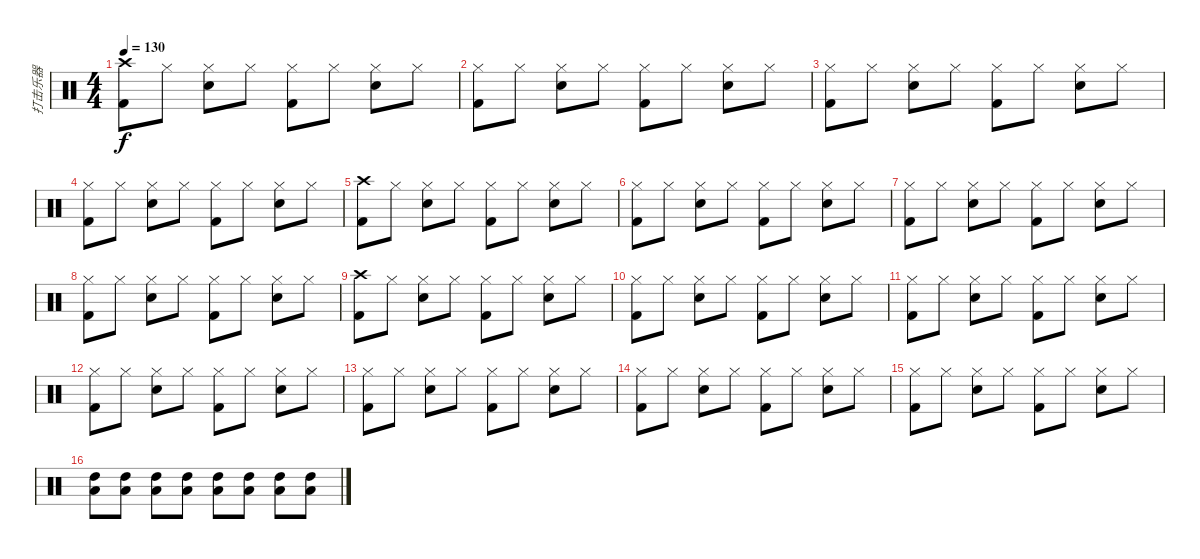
\track ("打击乐器" "打击乐器") {instrument percussion}
\staff {score}
\articulation defaults
\ts (4 4)
\tempo 130
\clef neutral
\ks c
("Kick (hit) 2" "Crash high (hit)").8{dy f} "Hi-Hat (closed)".8 ("Snare (hit) 2" "Hi-Hat (closed)").8 "Hi-Hat (closed)".8 ("Kick (hit) 2" "Hi-Hat (closed)").8 "Hi-Hat (closed)".8 ("Snare (hit) 2" "Hi-Hat (closed)").8 "Hi-Hat (closed)".8 |
("Kick (hit) 2" "Hi-Hat (closed)").8 "Hi-Hat (closed)".8 ("Snare (hit) 2" "Hi-Hat (closed)").8 "Hi-Hat (closed)".8 ("Kick (hit) 2" "Hi-Hat (closed)").8 "Hi-Hat (closed)".8 ("Snare (hit) 2" "Hi-Hat (closed)").8 "Hi-Hat (closed)".8 |
("Kick (hit) 2" "Hi-Hat (closed)").8 "Hi-Hat (closed)".8 ("Snare (hit) 2" "Hi-Hat (closed)").8 "Hi-Hat (closed)".8 ("Kick (hit) 2" "Hi-Hat (closed)").8 "Hi-Hat (closed)".8 ("Snare (hit) 2" "Hi-Hat (closed)").8 "Hi-Hat (closed)".8 |
("Kick (hit) 2" "Hi-Hat (closed)").8 "Hi-Hat (closed)".8 ("Snare (hit) 2" "Hi-Hat (closed)").8 "Hi-Hat (closed)".8 ("Kick (hit) 2" "Hi-Hat (closed)").8 "Hi-Hat (closed)".8 ("Snare (hit) 2" "Hi-Hat (closed)").8 "Hi-Hat (closed)".8 |
("Kick (hit) 2" "Crash high (hit)").8 "Hi-Hat (closed)".8 ("Snare (hit) 2" "Hi-Hat (closed)").8 "Hi-Hat (closed)".8 ("Kick (hit) 2" "Hi-Hat (closed)").8 "Hi-Hat (closed)".8 ("Snare (hit) 2" "Hi-Hat (closed)").8 "Hi-Hat (closed)".8 |
("Kick (hit) 2" "Hi-Hat (closed)").8 "Hi-Hat (closed)".8 ("Snare (hit) 2" "Hi-Hat (closed)").8 "Hi-Hat (closed)".8 ("Kick (hit) 2" "Hi-Hat (closed)").8 "Hi-Hat (closed)".8 ("Snare (hit) 2" "Hi-Hat (closed)").8 "Hi-Hat (closed)".8 |
("Kick (hit) 2" "Hi-Hat (closed)").8 "Hi-Hat (closed)".8 ("Snare (hit) 2" "Hi-Hat (closed)").8 "Hi-Hat (closed)".8 ("Kick (hit) 2" "Hi-Hat (closed)").8 "Hi-Hat (closed)".8 ("Snare (hit) 2" "Hi-Hat (closed)").8 "Hi-Hat (closed)".8 |
("Kick (hit) 2" "Hi-Hat (closed)").8 "Hi-Hat (closed)".8 ("Snare (hit) 2" "Hi-Hat (closed)").8 "Hi-Hat (closed)".8 ("Kick (hit) 2" "Hi-Hat (closed)").8 "Hi-Hat (closed)".8 ("Snare (hit) 2" "Hi-Hat (closed)").8 "Hi-Hat (closed)".8 |
("Kick (hit) 2" "Crash high (hit)").8 "Hi-Hat (closed)".8 ("Snare (hit) 2" "Hi-Hat (closed)").8 "Hi-Hat (closed)".8 ("Kick (hit) 2" "Hi-Hat (closed)").8 "Hi-Hat (closed)".8 ("Snare (hit) 2" "Hi-Hat (closed)").8 "Hi-Hat (closed)".8 |
("Kick (hit) 2" "Hi-Hat (closed)").8 "Hi-Hat (closed)".8 ("Snare (hit) 2" "Hi-Hat (closed)").8 "Hi-Hat (closed)".8 ("Kick (hit) 2" "Hi-Hat (closed)").8 "Hi-Hat (closed)".8 ("Snare (hit) 2" "Hi-Hat (closed)").8 "Hi-Hat (closed)".8 |
("Kick (hit) 2" "Hi-Hat (closed)").8 "Hi-Hat (closed)".8 ("Snare (hit) 2" "Hi-Hat (closed)").8 "Hi-Hat (closed)".8 ("Kick (hit) 2" "Hi-Hat (closed)").8 "Hi-Hat (closed)".8 ("Snare (hit) 2" "Hi-Hat (closed)").8 "Hi-Hat (closed)".8 |
("Kick (hit) 2" "Hi-Hat (closed)").8 "Hi-Hat (closed)".8 ("Snare (hit) 2" "Hi-Hat (closed)").8 "Hi-Hat (closed)".8 ("Kick (hit) 2" "Hi-Hat (closed)").8 "Hi-Hat (closed)".8 ("Snare (hit) 2" "Hi-Hat (closed)").8 "Hi-Hat (closed)".8 |
("Kick (hit) 2" "Hi-Hat (closed)").8 "Hi-Hat (closed)".8 ("Snare (hit) 2" "Hi-Hat (closed)").8 "Hi-Hat (closed)".8 ("Kick (hit) 2" "Hi-Hat (closed)").8 "Hi-Hat (closed)".8 ("Snare (hit) 2" "Hi-Hat (closed)").8 "Hi-Hat (closed)".8 |
("Kick (hit) 2" "Hi-Hat (closed)").8 "Hi-Hat (closed)".8 ("Snare (hit) 2" "Hi-Hat (closed)").8 "Hi-Hat (closed)".8 ("Kick (hit) 2" "Hi-Hat (closed)").8 "Hi-Hat (closed)".8 ("Snare (hit) 2" "Hi-Hat (closed)").8 "Hi-Hat (closed)".8 |
("Kick (hit) 2" "Hi-Hat (closed)").8 "Hi-Hat (closed)".8 ("Snare (hit) 2" "Hi-Hat (closed)").8 "Hi-Hat (closed)".8 ("Kick (hit) 2" "Hi-Hat (closed)").8 "Hi-Hat (closed)".8 ("Snare (hit) 2" "Hi-Hat (closed)").8 "Hi-Hat (closed)".8 |
("High Tom (hit)" "Low Tom (hit)").8 ("High Tom (hit)" "Low Tom (hit)").8 ("High Tom (hit)" "Low Tom (hit)").8 ("High Tom (hit)" "Low Tom (hit)").8 ("High Tom (hit)" "Low Tom (hit)").8 ("High Tom (hit)" "Low Tom (hit)").8 ("High Tom (hit)" "Low Tom (hit)").8 ("High Tom (hit)" "Low Tom (hit)").8
